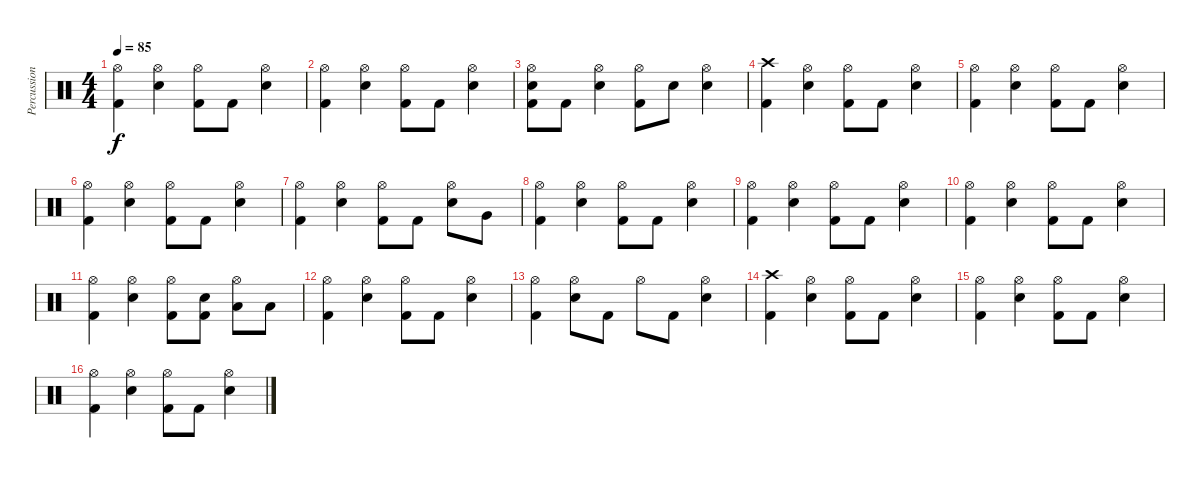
\track ("Percussion" "Percussion") {instrument percussion}
\staff {score}
\articulation defaults
\ts (4 4)
\tempo 85
\clef neutral
\ks c
("Hi-Hat (open)" "Kick (hit) 2").4{dy f} ("Hi-Hat (open)" "Snare (hit) 2").4 ("Hi-Hat (open)" "Kick (hit) 2").8 "Kick (hit) 2".8 ("Hi-Hat (open)" "Snare (hit) 2").4 |
("Hi-Hat (open)" "Kick (hit) 2").4 ("Hi-Hat (open)" "Snare (hit) 2").4 ("Hi-Hat (open)" "Kick (hit) 2").8 "Kick (hit) 2".8 ("Hi-Hat (open)" "Snare (hit) 2").4 |
("Hi-Hat (open)" "Snare (hit) 2" "Kick (hit) 2").8 "Kick (hit) 2".8 ("Hi-Hat (open)" "Snare (hit) 2").4 ("Hi-Hat (open)" "Kick (hit) 2").8 "Snare (hit) 2".8 ("Hi-Hat (open)" "Snare (hit) 2").4 |
("Crash high (hit)" "Kick (hit) 2").4 ("Hi-Hat (open)" "Snare (hit) 2").4 ("Hi-Hat (open)" "Kick (hit) 2").8 "Kick (hit) 2".8 ("Hi-Hat (open)" "Snare (hit) 2").4 |
("Hi-Hat (open)" "Kick (hit) 2").4 ("Hi-Hat (open)" "Snare (hit) 2").4 ("Hi-Hat (open)" "Kick (hit) 2").8 "Kick (hit) 2".8 ("Hi-Hat (open)" "Snare (hit) 2").4 |
("Hi-Hat (open)" "Kick (hit) 2").4 ("Hi-Hat (open)" "Snare (hit) 2").4 ("Hi-Hat (open)" "Kick (hit) 2").8 "Kick (hit) 2".8 ("Hi-Hat (open)" "Snare (hit) 2").4 |
("Hi-Hat (open)" "Kick (hit) 2").4 ("Hi-Hat (open)" "Snare (hit) 2").4 ("Hi-Hat (open)" "Kick (hit) 2").8 "Kick (hit) 2".8 ("Hi-Hat (open)" "Snare (hit) 2").8 "Very Low Tom (hit)".8 |
("Hi-Hat (open)" "Kick (hit) 2").4 ("Hi-Hat (open)" "Snare (hit) 2").4 ("Hi-Hat (open)" "Kick (hit) 2").8 "Kick (hit) 2".8 ("Hi-Hat (open)" "Snare (hit) 2").4 |
("Hi-Hat (open)" "Kick (hit) 2").4 ("Hi-Hat (open)" "Snare (hit) 2").4 ("Hi-Hat (open)" "Kick (hit) 2").8 "Kick (hit) 2".8 ("Hi-Hat (open)" "Snare (hit) 2").4 |
("Hi-Hat (open)" "Kick (hit) 2").4 ("Hi-Hat (open)" "Snare (hit) 2").4 ("Hi-Hat (open)" "Kick (hit) 2").8 "Kick (hit) 2".8 ("Hi-Hat (open)" "Snare (hit) 2").4 |
("Hi-Hat (open)" "Kick (hit) 2").4 ("Hi-Hat (open)" "Snare (hit) 2").4 ("Hi-Hat (open)" "Kick (hit) 2").8 ("Snare (hit) 2" "Kick (hit) 2").8 ("Hi-Hat (open)" "Low Tom (hit)").8 "Low Tom (hit)".8 |
("Hi-Hat (open)" "Kick (hit) 2").4 ("Hi-Hat (open)" "Snare (hit) 2").4 ("Hi-Hat (open)" "Kick (hit) 2").8 "Kick (hit) 2".8 ("Hi-Hat (open)" "Snare (hit) 2").4 |
("Hi-Hat (open)" "Kick (hit) 2").4 ("Hi-Hat (open)" "Snare (hit) 2").8 "Kick (hit) 2".8 "Hi-Hat (open)".8 "Kick (hit) 2".8 ("Hi-Hat (open)" "Snare (hit) 2").4 |
("Crash high (hit)" "Kick (hit) 2").4 ("Hi-Hat (open)" "Snare (hit) 2").4 ("Hi-Hat (open)" "Kick (hit) 2").8 "Kick (hit) 2".8 ("Hi-Hat (open)" "Snare (hit) 2").4 |
("Hi-Hat (open)" "Kick (hit) 2").4 ("Hi-Hat (open)" "Snare (hit) 2").4 ("Hi-Hat (open)" "Kick (hit) 2").8 "Kick (hit) 2".8 ("Hi-Hat (open)" "Snare (hit) 2").4 |
("Hi-Hat (open)" "Kick (hit) 2").4 ("Hi-Hat (open)" "Snare (hit) 2").4 ("Hi-Hat (open)" "Kick (hit) 2").8 "Kick (hit) 2".8 ("Hi-Hat (open)" "Snare (hit) 2").4
